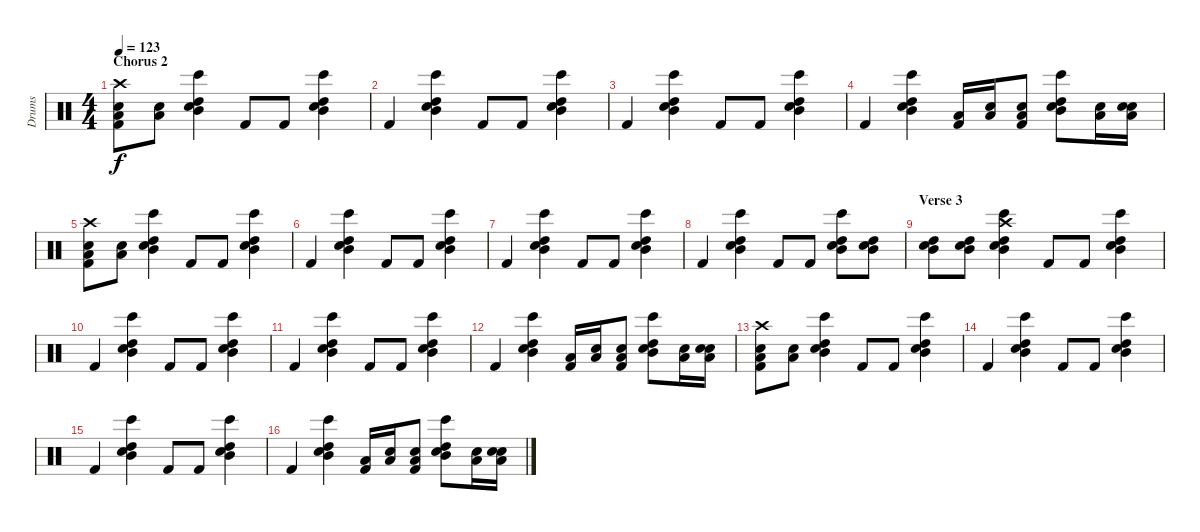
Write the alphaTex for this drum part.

\track ("Drums" "Drums") {instrument percussion}
\staff {score}
\articulation defaults
\ts (4 4)
\section ("" "Chorus 2")
\tempo 123
\clef neutral
\ks c
("Crash high (hit)" "Snare (hit) 2" "Low Floor Tom (hit)" "Kick (hit) 2").8{dy f} ("Snare (hit) 2" "Low Floor Tom (hit)").8 ("Bongo High (hit)" "High Tom (hit)" "Mid Tom (hit)" "Snare (hit) 2").4 "Kick (hit) 2".8 "Kick (hit) 2".8 ("Bongo High (hit)" "High Tom (hit)" "Mid Tom (hit)" "Snare (hit) 2").4 |
"Kick (hit) 2".4 ("Bongo High (hit)" "High Tom (hit)" "Mid Tom (hit)" "Snare (hit) 2").4 "Kick (hit) 2".8 "Kick (hit) 2".8 ("Bongo High (hit)" "High Tom (hit)" "Mid Tom (hit)" "Snare (hit) 2").4 |
"Kick (hit) 2".4 ("Bongo High (hit)" "High Tom (hit)" "Mid Tom (hit)" "Snare (hit) 2").4 "Kick (hit) 2".8 "Kick (hit) 2".8 ("Bongo High (hit)" "High Tom (hit)" "Mid Tom (hit)" "Snare (hit) 2").4 |
"Kick (hit) 2".4 ("Bongo High (hit)" "High Tom (hit)" "Mid Tom (hit)" "Snare (hit) 2").4 ("Low Floor Tom (hit)" "Kick (hit) 2").16 ("Snare (hit) 2" "Low Floor Tom (hit)").16 ("Snare (hit) 2" "Low Floor Tom (hit)" "Kick (hit) 2").8 ("Bongo High (hit)" "High Tom (hit)" "Mid Tom (hit)" "Snare (hit) 2").8 ("Low Floor Tom (hit)" "Snare (hit) 2").16 ("Snare (hit) 2" "Low Floor Tom (hit)" "Snare (hit) 2").16 |
("Crash high (hit)" "Snare (hit) 2" "Low Floor Tom (hit)" "Kick (hit) 2").8 ("Snare (hit) 2" "Low Floor Tom (hit)").8 ("Bongo High (hit)" "High Tom (hit)" "Mid Tom (hit)" "Snare (hit) 2").4 "Kick (hit) 2".8 "Kick (hit) 2".8 ("Bongo High (hit)" "High Tom (hit)" "Mid Tom (hit)" "Snare (hit) 2").4 |
"Kick (hit) 2".4 ("Bongo High (hit)" "High Tom (hit)" "Mid Tom (hit)" "Snare (hit) 2").4 "Kick (hit) 2".8 "Kick (hit) 2".8 ("Bongo High (hit)" "High Tom (hit)" "Mid Tom (hit)" "Snare (hit) 2").4 |
"Kick (hit) 2".4 ("Bongo High (hit)" "High Tom (hit)" "Mid Tom (hit)" "Snare (hit) 2").4 "Kick (hit) 2".8 "Kick (hit) 2".8 ("Bongo High (hit)" "High Tom (hit)" "Mid Tom (hit)" "Snare (hit) 2").4 |
"Kick (hit) 2".4 ("Bongo High (hit)" "High Tom (hit)" "Mid Tom (hit)" "Snare (hit) 2").4 "Kick (hit) 2".8 "Kick (hit) 2".8 ("Bongo High (hit)" "High Tom (hit)" "Mid Tom (hit)" "Snare (hit) 2").8 ("High Tom (hit)" "Mid Tom (hit)" "Snare (hit) 2").8 |
\section ("" "Verse 3")
("High Tom (hit)" "Mid Tom (hit)" "Snare (hit) 2").8 ("High Tom (hit)" "Mid Tom (hit)" "Snare (hit) 2").8 ("Crash high (hit)" "Bongo High (hit)" "High Tom (hit)" "Mid Tom (hit)" "Snare (hit) 2").4 "Kick (hit) 2".8 "Kick (hit) 2".8 ("Bongo High (hit)" "High Tom (hit)" "Mid Tom (hit)" "Snare (hit) 2").4 |
"Kick (hit) 2".4 ("Bongo High (hit)" "High Tom (hit)" "Mid Tom (hit)" "Snare (hit) 2").4 "Kick (hit) 2".8 "Kick (hit) 2".8 ("Bongo High (hit)" "High Tom (hit)" "Mid Tom (hit)" "Snare (hit) 2").4 |
"Kick (hit) 2".4 ("Bongo High (hit)" "High Tom (hit)" "Mid Tom (hit)" "Snare (hit) 2").4 "Kick (hit) 2".8 "Kick (hit) 2".8 ("Bongo High (hit)" "High Tom (hit)" "Mid Tom (hit)" "Snare (hit) 2").4 |
"Kick (hit) 2".4 ("Bongo High (hit)" "High Tom (hit)" "Mid Tom (hit)" "Snare (hit) 2").4 ("Low Floor Tom (hit)" "Kick (hit) 2").16 ("Snare (hit) 2" "Low Floor Tom (hit)").16 ("Snare (hit) 2" "Low Floor Tom (hit)" "Kick (hit) 2").8 ("Bongo High (hit)" "High Tom (hit)" "Mid Tom (hit)" "Snare (hit) 2").8 ("Low Floor Tom (hit)" "Snare (hit) 2").16 ("Snare (hit) 2" "Low Floor Tom (hit)" "Snare (hit) 2").16 |
("Crash high (hit)" "Snare (hit) 2" "Low Floor Tom (hit)" "Kick (hit) 2").8 ("Snare (hit) 2" "Low Floor Tom (hit)").8 ("Bongo High (hit)" "High Tom (hit)" "Mid Tom (hit)" "Snare (hit) 2").4 "Kick (hit) 2".8 "Kick (hit) 2".8 ("Bongo High (hit)" "High Tom (hit)" "Mid Tom (hit)" "Snare (hit) 2").4 |
"Kick (hit) 2".4 ("Bongo High (hit)" "High Tom (hit)" "Mid Tom (hit)" "Snare (hit) 2").4 "Kick (hit) 2".8 "Kick (hit) 2".8 ("Bongo High (hit)" "High Tom (hit)" "Mid Tom (hit)" "Snare (hit) 2").4 |
"Kick (hit) 2".4 ("Bongo High (hit)" "High Tom (hit)" "Mid Tom (hit)" "Snare (hit) 2").4 "Kick (hit) 2".8 "Kick (hit) 2".8 ("Bongo High (hit)" "High Tom (hit)" "Mid Tom (hit)" "Snare (hit) 2").4 |
"Kick (hit) 2".4 ("Bongo High (hit)" "High Tom (hit)" "Mid Tom (hit)" "Snare (hit) 2").4 ("Low Floor Tom (hit)" "Kick (hit) 2").16 ("Snare (hit) 2" "Low Floor Tom (hit)").16 ("Snare (hit) 2" "Low Floor Tom (hit)" "Kick (hit) 2").8 ("Bongo High (hit)" "High Tom (hit)" "Mid Tom (hit)" "Snare (hit) 2").8 ("Low Floor Tom (hit)" "Snare (hit) 2").16 ("Snare (hit) 2" "Low Floor Tom (hit)" "Snare (hit) 2").16
